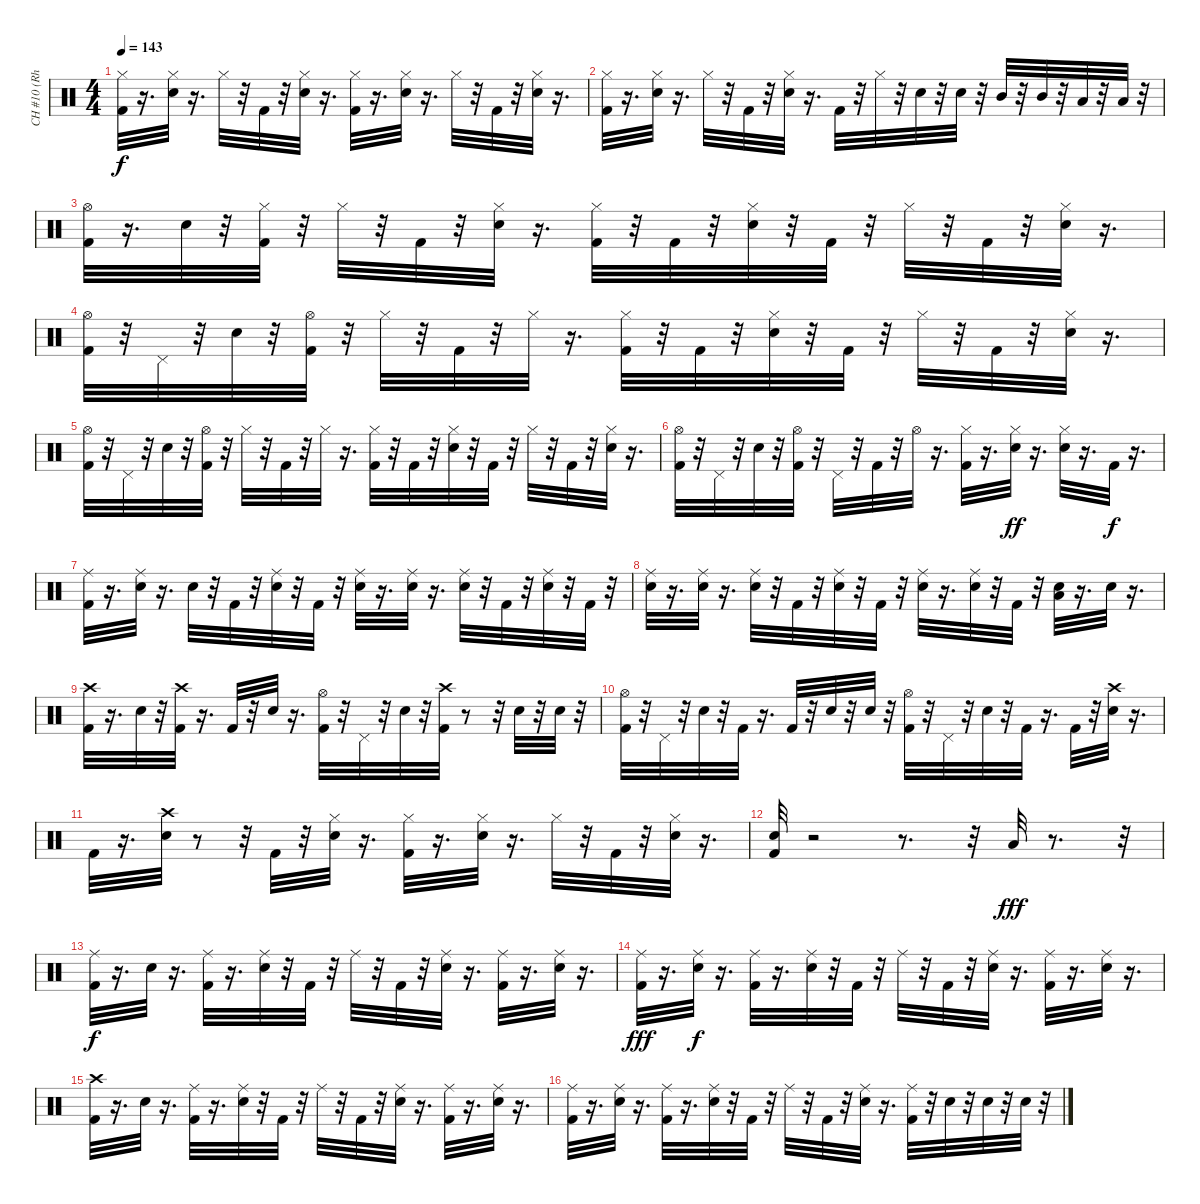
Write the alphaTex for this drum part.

\track ("CH #10 (Rhythm channel)" "CH #10 (Rh") {instrument percussion}
\staff {score}
\articulation defaults
\ts (4 4)
\tempo 143
\clef neutral
\ks c
("Kick (hit) 2" "Hi-Hat (closed)").32{dy f} r.16{d} ("Electric Snare (hit)" "Hi-Hat (closed)").32 r.16{d} "Hi-Hat (closed)".32 r.32 "Kick (hit) 2".32 r.32 ("Electric Snare (hit)" "Hi-Hat (closed)").32 r.16{d} ("Kick (hit) 2" "Hi-Hat (closed)").32 r.16{d} ("Hi-Hat (closed)" "Electric Snare (hit)").32 r.16{d} "Hi-Hat (closed)".32 r.32 "Kick (hit) 2".32 r.32 ("Hi-Hat (closed)" "Electric Snare (hit)").32 r.16{d} |
("Kick (hit) 2" "Hi-Hat (closed)").32 r.16{d} ("Electric Snare (hit)" "Hi-Hat (closed)").32 r.16{d} "Hi-Hat (closed)".32 r.32 "Kick (hit) 2".32 r.32 ("Hi-Hat (closed)" "Electric Snare (hit)").32 r.16{d} "Kick (hit) 2".32 r.32 "Hi-Hat (closed)".32 r.32 "Electric Snare (hit)".32 r.32 "Electric Snare (hit)".32 r.32 "Mid Tom (hit)".32 r.32 "Mid Tom (hit)".32 r.32 "Low Tom (hit)".32 r.32 "Low Tom (hit)".32 r.32 |
("Kick (hit) 2" "Hi-Hat (open)").32 r.16{d} "Electric Snare (hit)".32 r.32 ("Kick (hit) 2" "Hi-Hat (closed)").32 r.32 "Hi-Hat (closed)".32 r.32 "Kick (hit) 2".32 r.32 ("Hi-Hat (closed)" "Electric Snare (hit)").32 r.16{d} ("Hi-Hat (closed)" "Kick (hit) 2").32 r.32 "Kick (hit) 2".32 r.32 ("Hi-Hat (closed)" "Electric Snare (hit)").32 r.32 "Kick (hit) 2".32 r.32 "Hi-Hat (closed)".32 r.32 "Kick (hit) 2".32 r.32 ("Hi-Hat (closed)" "Electric Snare (hit)").32 r.16{d} |
("Hi-Hat (open)" "Kick (hit) 2").32 r.32 "Pedal Hi-Hat (hit)".32 r.32 "Electric Snare (hit)".32 r.32 ("Hi-Hat (open)" "Kick (hit) 2").32 r.32 "Hi-Hat (closed)".32 r.32 "Kick (hit) 2".32 r.32 "Hi-Hat (closed)".32 r.16{d} ("Hi-Hat (closed)" "Kick (hit) 2").32 r.32 "Kick (hit) 2".32 r.32 ("Hi-Hat (closed)" "Electric Snare (hit)").32 r.32 "Kick (hit) 2".32 r.32 "Hi-Hat (closed)".32 r.32 "Kick (hit) 2".32 r.32 ("Hi-Hat (closed)" "Electric Snare (hit)").32 r.16{d} |
("Hi-Hat (open)" "Kick (hit) 2").32 r.32 "Pedal Hi-Hat (hit)".32 r.32 "Electric Snare (hit)".32 r.32 ("Hi-Hat (open)" "Kick (hit) 2").32 r.32 "Hi-Hat (closed)".32 r.32 "Kick (hit) 2".32 r.32 "Hi-Hat (closed)".32 r.16{d} ("Hi-Hat (closed)" "Kick (hit) 2").32 r.32 "Kick (hit) 2".32 r.32 ("Hi-Hat (closed)" "Electric Snare (hit)").32 r.32 "Kick (hit) 2".32 r.32 "Hi-Hat (closed)".32 r.32 "Kick (hit) 2".32 r.32 ("Hi-Hat (closed)" "Electric Snare (hit)").32 r.16{d} |
("Hi-Hat (open)" "Kick (hit) 2").32 r.32 "Pedal Hi-Hat (hit)".32 r.32 "Electric Snare (hit)".32 r.32 ("Hi-Hat (open)" "Kick (hit) 2").32 r.32 "Pedal Hi-Hat (hit)".32 r.32 "Kick (hit) 2".32 r.32 "Hi-Hat (open)".32 r.16{d} ("Hi-Hat (closed)" "Kick (hit) 2").32 r.16{d} ("Hi-Hat (closed)" "Electric Snare (hit)").32{dy ff} r.16{d} ("Hi-Hat (closed)" "Electric Snare (hit)").32 r.16{d} "Kick (hit) 2".32{dy f} r.16{d} |
("Kick (hit) 2" "Ride (middle)").32 r.16{d} ("Electric Snare (hit)" "Ride (middle)").32 r.16{d} "Electric Snare (hit)".32 r.32 "Kick (hit) 2".32 r.32 ("Electric Snare (hit)" "Ride (middle)").32 r.32 "Kick (hit) 2".32 r.32 ("Electric Snare (hit)" "Ride (middle)").32 r.16{d} ("Electric Snare (hit)" "Ride (middle)").32 r.16{d} ("Electric Snare (hit)" "Ride (middle)").32 r.32 "Kick (hit) 2".32 r.32 ("Electric Snare (hit)" "Ride (middle)").32 r.32 "Kick (hit) 2".32 r.32 |
("Electric Snare (hit)" "Ride (middle)").32 r.16{d} ("Electric Snare (hit)" "Ride (middle)").32 r.16{d} ("Electric Snare (hit)" "Ride (middle)").32 r.32 "Kick (hit) 2".32 r.32 ("Electric Snare (hit)" "Ride (middle)").32 r.32 "Kick (hit) 2".32 r.32 ("Electric Snare (hit)" "Ride (middle)").32 r.16{d} ("Electric Snare (hit)" "Ride (middle)").32 r.32 "Kick (hit) 2".32 r.32 ("Electric Snare (hit)" "Low Floor Tom (hit)").32 r.16{d} "Electric Snare (hit)".32 r.16{d} |
("Kick (hit) 2" "Crash high (hit)").32 r.16{d} "Electric Snare (hit)".32 r.32 ("Kick (hit) 2" "Crash high (hit)").32 r.16{d} "Kick (hit) 2".32 r.32 "Electric Snare (hit)".32 r.16{d} ("Kick (hit) 2" "Hi-Hat (open)").32 r.32 "Pedal Hi-Hat (hit)".32 r.32 "Electric Snare (hit)".32 r.32 ("Kick (hit) 2" "Crash high (hit)").32 r.8 r.32 "Electric Snare (hit)".32 r.32 "Electric Snare (hit)".32 r.32 |
("Kick (hit) 2" "Hi-Hat (open)").32 r.32 "Pedal Hi-Hat (hit)".32 r.32 "Electric Snare (hit)".32 r.32 "Kick (hit) 2".32 r.16{d} "Kick (hit) 2".32 r.32 "Electric Snare (hit)".32 r.32 "Electric Snare (hit)".32 r.32 ("Kick (hit) 2" "Hi-Hat (open)").32 r.32 "Pedal Hi-Hat (hit)".32 r.32 "Electric Snare (hit)".32 r.32 "Kick (hit) 2".32 r.16{d} "Kick (hit) 2".32 r.32 ("Electric Snare (hit)" "Crash high (hit)").32 r.16{d} |
"Kick (hit) 2".32 r.16{d} ("Electric Snare (hit)" "Crash high (hit)").32 r.8 r.32 "Kick (hit) 2".32 r.32 ("Electric Snare (hit)" "Hi-Hat (closed)").32 r.16{d} ("Kick (hit) 2" "Hi-Hat (closed)").32 r.16{d} ("Electric Snare (hit)" "Hi-Hat (closed)").32 r.16{d} "Hi-Hat (closed)".32 r.32 "Kick (hit) 2".32 r.32 ("Electric Snare (hit)" "Hi-Hat (closed)").32 r.16{d} |
("Electric Snare (hit)" "Kick (hit) 2").32 r.2 r.8{d} r.32 "Low Floor Tom (hit)".32{dy fff} r.8{d} r.32 |
("Kick (hit) 2" "Ride (middle)").32{dy f} r.16{d} "Electric Snare (hit)".32 r.16{d} ("Kick (hit) 2" "Ride (middle)").32 r.16{d} ("Electric Snare (hit)" "Ride (middle)").32 r.32 "Kick (hit) 2".32 r.32 "Ride (middle)".32 r.32 "Kick (hit) 2".32 r.32 ("Electric Snare (hit)" "Ride (middle)").32 r.16{d} ("Kick (hit) 2" "Ride (middle)").32 r.16{d} ("Electric Snare (hit)" "Ride (middle)").32 r.16{d} |
("Kick (hit) 2" "Ride (middle)").32{dy fff} r.16{d} ("Electric Snare (hit)" "Ride (middle)").32{dy f} r.16{d} ("Kick (hit) 2" "Ride (middle)").32 r.16{d} ("Electric Snare (hit)" "Ride (middle)").32 r.32 "Kick (hit) 2".32 r.32 "Ride (middle)".32 r.32 "Kick (hit) 2".32 r.32 ("Electric Snare (hit)" "Ride (middle)").32 r.16{d} ("Kick (hit) 2" "Ride (middle)").32 r.16{d} ("Electric Snare (hit)" "Ride (middle)").32 r.16{d} |
("Kick (hit) 2" "Crash high (hit)").32 r.16{d} "Electric Snare (hit)".32 r.16{d} ("Kick (hit) 2" "Ride (middle)").32 r.16{d} ("Electric Snare (hit)" "Ride (middle)").32 r.32 "Kick (hit) 2".32 r.32 "Ride (middle)".32 r.32 "Kick (hit) 2".32 r.32 ("Electric Snare (hit)" "Ride (middle)").32 r.16{d} ("Kick (hit) 2" "Ride (middle)").32 r.16{d} ("Electric Snare (hit)" "Ride (middle)").32 r.16{d} |
("Kick (hit) 2" "Ride (middle)").32 r.16{d} ("Electric Snare (hit)" "Ride (middle)").32 r.16{d} ("Kick (hit) 2" "Ride (middle)").32 r.16{d} ("Electric Snare (hit)" "Ride (middle)").32 r.32 "Kick (hit) 2".32 r.32 "Ride (middle)".32 r.32 "Kick (hit) 2".32 r.32 ("Electric Snare (hit)" "Ride (middle)").32 r.16{d} ("Kick (hit) 2" "Ride (middle)").32 r.32 "Electric Snare (hit)".32 r.32 "Electric Snare (hit)".32 r.32 "Electric Snare (hit)".32 r.32
